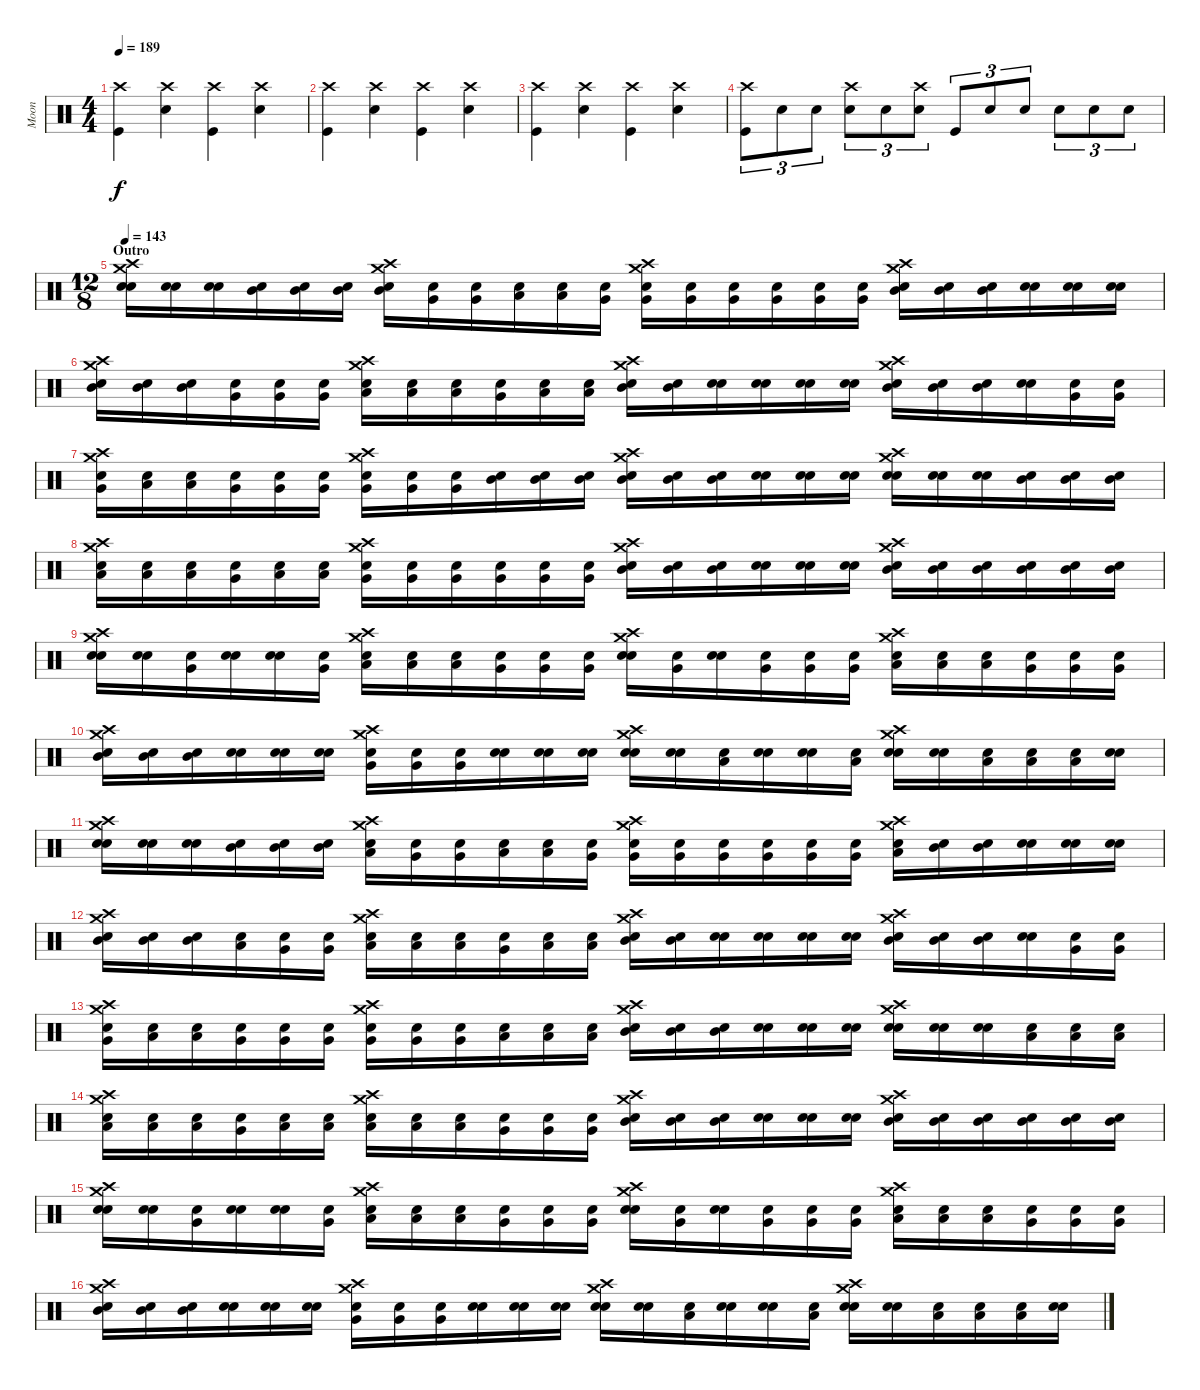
\track ("Moon" "Moon") {instrument percussion}
\staff {score}
\articulation defaults
\ts (4 4)
\tempo 189
\clef neutral
\ks c
("Crash high (hit)" "Kick (hit)").4{dy f} ("Crash high (hit)" "Snare (hit) 2").4 ("Crash high (hit)" "Kick (hit)").4 ("Crash high (hit)" "Snare (hit) 2").4 |
("Crash high (hit)" "Kick (hit)").4 ("Crash high (hit)" "Snare (hit) 2").4 ("Crash high (hit)" "Kick (hit)").4 ("Crash high (hit)" "Snare (hit) 2").4 |
("Crash high (hit)" "Kick (hit)").4 ("Crash high (hit)" "Snare (hit) 2").4 ("Crash high (hit)" "Kick (hit)").4 ("Crash high (hit)" "Snare (hit) 2").4 |
("Crash high (hit)" "Kick (hit)").8{tu (3 2)} "Snare (hit) 2".8{tu (3 2)} "Snare (hit) 2".8{tu (3 2)} ("Crash high (hit)" "Snare (hit) 2").8{tu (3 2)} "Snare (hit) 2".8{tu (3 2)} ("Crash high (hit)" "Snare (hit) 2").8{tu (3 2)} "Kick (hit)".8{tu (3 2)} "Snare (hit) 2".8{tu (3 2)} "Snare (hit) 2".8{tu (3 2)} "Snare (hit) 2".8{tu (3 2)} "Snare (hit) 2".8{tu (3 2)} "Snare (hit) 2".8{tu (3 2)} |
\ts (12 8)
\section ("" "Outro")
\tempo 143
("Snare (hit)" "Snare (hit) 2" "Crash medium (hit)" "Crash high (hit)").16 ("Snare (hit)" "Electric Snare (hit)").16 ("Snare (hit)" "Electric Snare (hit)").16 ("Snare (hit)" "Mid Tom (hit)").16 ("Snare (hit)" "Mid Tom (hit)").16 ("Snare (hit)" "Mid Tom (hit)").16 ("Snare (hit)" "Mid Tom (hit)" "Crash high (hit)" "Crash medium (hit)").16 ("Snare (hit)" "Very Low Tom (hit)").16 ("Snare (hit)" "Very Low Tom (hit)").16 ("Snare (hit)" "Low Floor Tom (hit)").16 ("Snare (hit)" "Low Floor Tom (hit)").16 ("Snare (hit)" "Very Low Tom (hit)").16 ("Snare (hit)" "Very Low Tom (hit)" "Crash medium (hit)" "Crash high (hit)").16 ("Snare (hit)" "Very Low Tom (hit)").16 ("Snare (hit)" "Very Low Tom (hit)").16 ("Snare (hit)" "Very Low Tom (hit)").16 ("Snare (hit)" "Very Low Tom (hit)").16 ("Snare (hit)" "Very Low Tom (hit)").16 ("Snare (hit)" "Mid Tom (hit)" "Crash high (hit)" "Crash medium (hit)").16 ("Snare (hit)" "Mid Tom (hit)").16 ("Snare (hit)" "Mid Tom (hit)").16 ("Snare (hit)" "Electric Snare (hit)").16 ("Snare (hit)" "Electric Snare (hit)").16 ("Snare (hit)" "Electric Snare (hit)").16 |
("Snare (hit)" "Mid Tom (hit)" "Crash medium (hit)" "Crash high (hit)").16 ("Snare (hit)" "Mid Tom (hit)").16 ("Snare (hit)" "Mid Tom (hit)").16 ("Snare (hit)" "Very Low Tom (hit)").16 ("Snare (hit)" "Very Low Tom (hit)").16 ("Snare (hit)" "Very Low Tom (hit)").16 ("Snare (hit)" "Low Floor Tom (hit)" "Crash high (hit)" "Crash medium (hit)").16 ("Snare (hit)" "Low Floor Tom (hit)").16 ("Snare (hit)" "Low Floor Tom (hit)").16 ("Snare (hit)" "Very Low Tom (hit)").16 ("Snare (hit)" "Low Floor Tom (hit)").16 ("Snare (hit)" "Low Floor Tom (hit)").16 ("Snare (hit)" "Mid Tom (hit)" "Crash medium (hit)" "Crash high (hit)").16 ("Snare (hit)" "Mid Tom (hit)").16 ("Snare (hit)" "Electric Snare (hit)").16 ("Snare (hit)" "Electric Snare (hit)").16 ("Snare (hit)" "Electric Snare (hit)").16 ("Snare (hit)" "Electric Snare (hit)").16 ("Snare (hit)" "Mid Tom (hit)" "Crash high (hit)" "Crash medium (hit)").16 ("Snare (hit)" "Mid Tom (hit)").16 ("Snare (hit)" "Mid Tom (hit)").16 ("Snare (hit)" "Electric Snare (hit)").16 ("Snare (hit)" "Very Low Tom (hit)").16 ("Snare (hit)" "Very Low Tom (hit)").16 |
("Snare (hit)" "Very Low Tom (hit)" "Crash medium (hit)" "Crash high (hit)").16 ("Snare (hit)" "Low Floor Tom (hit)").16 ("Snare (hit)" "Low Floor Tom (hit)").16 ("Snare (hit)" "Very Low Tom (hit)").16 ("Snare (hit)" "Very Low Tom (hit)").16 ("Snare (hit)" "Very Low Tom (hit)").16 ("Snare (hit)" "Very Low Tom (hit)" "Crash high (hit)" "Crash medium (hit)").16 ("Snare (hit)" "Very Low Tom (hit)").16 ("Snare (hit)" "Very Low Tom (hit)").16 ("Snare (hit)" "Mid Tom (hit)").16 ("Snare (hit)" "Mid Tom (hit)").16 ("Snare (hit)" "Mid Tom (hit)").16 ("Snare (hit)" "Mid Tom (hit)" "Crash medium (hit)" "Crash high (hit)").16 ("Snare (hit)" "Mid Tom (hit)").16 ("Snare (hit)" "Mid Tom (hit)").16 ("Snare (hit)" "Snare (hit) 2").16 ("Snare (hit)" "Electric Snare (hit)").16 ("Snare (hit)" "Electric Snare (hit)").16 ("Snare (hit)" "Electric Snare (hit)" "Crash high (hit)" "Crash medium (hit)").16 ("Snare (hit)" "Electric Snare (hit)").16 ("Snare (hit)" "Electric Snare (hit)").16 ("Snare (hit)" "Mid Tom (hit)").16 ("Snare (hit)" "Mid Tom (hit)").16 ("Snare (hit)" "Mid Tom (hit)").16 |
("Snare (hit)" "Low Floor Tom (hit)" "Crash medium (hit)" "Crash high (hit)").16 ("Snare (hit)" "Low Floor Tom (hit)").16 ("Snare (hit)" "Low Floor Tom (hit)").16 ("Snare (hit)" "Very Low Tom (hit)").16 ("Snare (hit)" "Low Floor Tom (hit)").16 ("Snare (hit)" "Low Floor Tom (hit)").16 ("Snare (hit)" "Very Low Tom (hit)" "Crash high (hit)" "Crash medium (hit)").16 ("Snare (hit)" "Very Low Tom (hit)").16 ("Snare (hit)" "Very Low Tom (hit)").16 ("Snare (hit)" "Very Low Tom (hit)").16 ("Snare (hit)" "Very Low Tom (hit)").16 ("Snare (hit)" "Very Low Tom (hit)").16 ("Snare (hit)" "Mid Tom (hit)" "Crash medium (hit)" "Crash high (hit)").16 ("Snare (hit)" "Mid Tom (hit)").16 ("Snare (hit)" "Mid Tom (hit)").16 ("Snare (hit)" "Snare (hit) 2").16 ("Snare (hit)" "Snare (hit) 2").16 ("Snare (hit)" "Snare (hit) 2").16 ("Snare (hit)" "Mid Tom (hit)" "Crash high (hit)" "Crash medium (hit)").16 ("Snare (hit)" "Mid Tom (hit)").16 ("Snare (hit)" "Mid Tom (hit)").16 ("Snare (hit)" "Mid Tom (hit)").16 ("Snare (hit)" "Mid Tom (hit)").16 ("Snare (hit)" "Mid Tom (hit)").16 |
("Snare (hit)" "Electric Snare (hit)" "Crash medium (hit)" "Crash high (hit)").16 ("Snare (hit)" "Electric Snare (hit)").16 ("Snare (hit)" "Very Low Tom (hit)").16 ("Snare (hit)" "Snare (hit) 2").16 ("Snare (hit)" "Snare (hit) 2").16 ("Snare (hit)" "Very Low Tom (hit)").16 ("Snare (hit)" "Low Floor Tom (hit)" "Crash high (hit)" "Crash medium (hit)").16 ("Snare (hit)" "Low Floor Tom (hit)").16 ("Snare (hit)" "Low Floor Tom (hit)").16 ("Snare (hit)" "Very Low Tom (hit)").16 ("Snare (hit)" "Very Low Tom (hit)").16 ("Snare (hit)" "Very Low Tom (hit)").16 ("Snare (hit)" "Snare (hit) 2" "Crash medium (hit)" "Crash high (hit)").16 ("Snare (hit)" "Very Low Tom (hit)").16 ("Snare (hit)" "Electric Snare (hit)").16 ("Snare (hit)" "Very Low Tom (hit)").16 ("Snare (hit)" "Very Low Tom (hit)").16 ("Snare (hit)" "Very Low Tom (hit)").16 ("Snare (hit)" "Low Floor Tom (hit)" "Crash high (hit)" "Crash medium (hit)").16 ("Snare (hit)" "Low Floor Tom (hit)").16 ("Snare (hit)" "Low Floor Tom (hit)").16 ("Snare (hit)" "Very Low Tom (hit)").16 ("Snare (hit)" "Very Low Tom (hit)").16 ("Snare (hit)" "Very Low Tom (hit)").16 |
("Snare (hit)" "Mid Tom (hit)" "Crash medium (hit)" "Crash high (hit)").16 ("Snare (hit)" "Mid Tom (hit)").16 ("Snare (hit)" "Mid Tom (hit)").16 ("Snare (hit)" "Snare (hit) 2").16 ("Snare (hit)" "Snare (hit) 2").16 ("Snare (hit)" "Snare (hit) 2").16 ("Snare (hit)" "Very Low Tom (hit)" "Crash high (hit)" "Crash medium (hit)").16 ("Snare (hit)" "Very Low Tom (hit)").16 ("Snare (hit)" "Very Low Tom (hit)").16 ("Snare (hit)" "Snare (hit) 2").16 ("Snare (hit)" "Snare (hit) 2").16 ("Snare (hit)" "Snare (hit) 2").16 ("Snare (hit)" "Electric Snare (hit)" "Crash medium (hit)" "Crash high (hit)").16 ("Snare (hit)" "Snare (hit) 2").16 ("Snare (hit)" "Low Floor Tom (hit)").16 ("Snare (hit)" "Snare (hit) 2").16 ("Snare (hit)" "Snare (hit) 2").16 ("Snare (hit)" "Low Floor Tom (hit)").16 ("Snare (hit)" "Snare (hit) 2" "Crash high (hit)" "Crash medium (hit)").16 ("Snare (hit)" "Snare (hit) 2").16 ("Snare (hit)" "Low Floor Tom (hit)").16 ("Snare (hit)" "Low Floor Tom (hit)").16 ("Snare (hit)" "Low Floor Tom (hit)").16 ("Snare (hit)" "Snare (hit) 2").16 |
("Snare (hit)" "Electric Snare (hit)" "Crash medium (hit)" "Crash high (hit)").16 ("Snare (hit)" "Snare (hit) 2").16 ("Snare (hit)" "Snare (hit) 2").16 ("Snare (hit)" "Mid Tom (hit)").16 ("Snare (hit)" "Mid Tom (hit)").16 ("Snare (hit)" "Mid Tom (hit)").16 ("Snare (hit)" "Low Tom (hit)" "Crash high (hit)" "Crash medium (hit)").16 ("Snare (hit)" "Very Low Tom (hit)").16 ("Snare (hit)" "Very Low Tom (hit)").16 ("Snare (hit)" "Low Floor Tom (hit)").16 ("Snare (hit)" "Low Floor Tom (hit)").16 ("Snare (hit)" "Very Low Tom (hit)").16 ("Snare (hit)" "Very Low Tom (hit)" "Crash medium (hit)" "Crash high (hit)").16 ("Snare (hit)" "Very Low Tom (hit)").16 ("Snare (hit)" "Very Low Tom (hit)").16 ("Snare (hit)" "Very Low Tom (hit)").16 ("Snare (hit)" "Very Low Tom (hit)").16 ("Snare (hit)" "Very Low Tom (hit)").16 ("Snare (hit)" "Low Tom (hit)" "Crash high (hit)" "Crash medium (hit)").16 ("Snare (hit)" "Mid Tom (hit)").16 ("Snare (hit)" "Mid Tom (hit)").16 ("Snare (hit)" "Snare (hit) 2").16 ("Snare (hit)" "Snare (hit) 2").16 ("Snare (hit)" "Snare (hit) 2").16 |
("Snare (hit)" "Mid Tom (hit)" "Crash medium (hit)" "Crash high (hit)").16 ("Snare (hit)" "Mid Tom (hit)").16 ("Snare (hit)" "Mid Tom (hit)").16 ("Snare (hit)" "Low Tom (hit)").16 ("Snare (hit)" "Very Low Tom (hit)").16 ("Snare (hit)" "Very Low Tom (hit)").16 ("Snare (hit)" "Low Floor Tom (hit)" "Crash high (hit)" "Crash medium (hit)").16 ("Snare (hit)" "Low Floor Tom (hit)").16 ("Snare (hit)" "Low Floor Tom (hit)").16 ("Snare (hit)" "Very Low Tom (hit)").16 ("Snare (hit)" "Low Floor Tom (hit)").16 ("Snare (hit)" "Low Floor Tom (hit)").16 ("Snare (hit)" "Mid Tom (hit)" "Crash medium (hit)" "Crash high (hit)").16 ("Snare (hit)" "Mid Tom (hit)").16 ("Snare (hit)" "Snare (hit) 2").16 ("Snare (hit)" "Snare (hit) 2").16 ("Snare (hit)" "Snare (hit) 2").16 ("Snare (hit)" "Snare (hit) 2").16 ("Snare (hit)" "Mid Tom (hit)" "Crash high (hit)" "Crash medium (hit)").16 ("Snare (hit)" "Mid Tom (hit)").16 ("Snare (hit)" "Mid Tom (hit)").16 ("Snare (hit)" "Electric Snare (hit)").16 ("Snare (hit)" "Very Low Tom (hit)").16 ("Snare (hit)" "Very Low Tom (hit)").16 |
("Snare (hit)" "Very Low Tom (hit)" "Crash medium (hit)" "Crash high (hit)").16 ("Snare (hit)" "Low Floor Tom (hit)").16 ("Snare (hit)" "Low Floor Tom (hit)").16 ("Snare (hit)" "Very Low Tom (hit)").16 ("Snare (hit)" "Very Low Tom (hit)").16 ("Snare (hit)" "Very Low Tom (hit)").16 ("Snare (hit)" "Very Low Tom (hit)" "Crash high (hit)" "Crash medium (hit)").16 ("Snare (hit)" "Very Low Tom (hit)").16 ("Snare (hit)" "Very Low Tom (hit)").16 ("Snare (hit)" "Low Tom (hit)").16 ("Snare (hit)" "Low Tom (hit)").16 ("Snare (hit)" "Low Tom (hit)").16 ("Snare (hit)" "Mid Tom (hit)" "Crash medium (hit)" "Crash high (hit)").16 ("Snare (hit)" "Mid Tom (hit)").16 ("Snare (hit)" "Mid Tom (hit)").16 ("Snare (hit)" "Snare (hit) 2").16 ("Snare (hit)" "Snare (hit) 2").16 ("Snare (hit)" "Snare (hit) 2").16 ("Snare (hit)" "Snare (hit) 2" "Crash high (hit)" "Crash medium (hit)").16 ("Snare (hit)" "Snare (hit) 2").16 ("Snare (hit)" "Snare (hit) 2").16 ("Snare (hit)" "Low Tom (hit)").16 ("Snare (hit)" "Low Tom (hit)").16 ("Snare (hit)" "Low Tom (hit)").16 |
("Snare (hit)" "Low Floor Tom (hit)" "Crash medium (hit)" "Crash high (hit)").16 ("Snare (hit)" "Low Floor Tom (hit)").16 ("Snare (hit)" "Low Floor Tom (hit)").16 ("Snare (hit)" "Very Low Tom (hit)").16 ("Snare (hit)" "Low Floor Tom (hit)").16 ("Snare (hit)" "Low Floor Tom (hit)").16 ("Snare (hit)" "Low Tom (hit)" "Crash high (hit)" "Crash medium (hit)").16 ("Snare (hit)" "Low Tom (hit)").16 ("Snare (hit)" "Low Tom (hit)").16 ("Snare (hit)" "Very Low Tom (hit)").16 ("Snare (hit)" "Very Low Tom (hit)").16 ("Snare (hit)" "Very Low Tom (hit)").16 ("Snare (hit)" "Mid Tom (hit)" "Crash medium (hit)" "Crash high (hit)").16 ("Snare (hit)" "Mid Tom (hit)").16 ("Snare (hit)" "Mid Tom (hit)").16 ("Snare (hit)" "Snare (hit) 2").16 ("Snare (hit)" "Snare (hit) 2").16 ("Snare (hit)" "Snare (hit) 2").16 ("Snare (hit)" "Mid Tom (hit)" "Crash high (hit)" "Crash medium (hit)").16 ("Snare (hit)" "Mid Tom (hit)").16 ("Snare (hit)" "Mid Tom (hit)").16 ("Snare (hit)" "Mid Tom (hit)").16 ("Snare (hit)" "Mid Tom (hit)").16 ("Snare (hit)" "Mid Tom (hit)").16 |
("Snare (hit)" "Snare (hit) 2" "Crash medium (hit)" "Crash high (hit)").16 ("Snare (hit)" "Snare (hit) 2").16 ("Snare (hit)" "Very Low Tom (hit)").16 ("Snare (hit)" "Snare (hit) 2").16 ("Snare (hit)" "Snare (hit) 2").16 ("Snare (hit)" "Very Low Tom (hit)").16 ("Snare (hit)" "Low Floor Tom (hit)" "Crash high (hit)" "Crash medium (hit)").16 ("Snare (hit)" "Low Floor Tom (hit)").16 ("Snare (hit)" "Low Floor Tom (hit)").16 ("Snare (hit)" "Very Low Tom (hit)").16 ("Snare (hit)" "Very Low Tom (hit)").16 ("Snare (hit)" "Very Low Tom (hit)").16 ("Snare (hit)" "Snare (hit) 2" "Crash medium (hit)" "Crash high (hit)").16 ("Snare (hit)" "Very Low Tom (hit)").16 ("Snare (hit)" "Snare (hit) 2").16 ("Snare (hit)" "Very Low Tom (hit)").16 ("Snare (hit)" "Very Low Tom (hit)").16 ("Snare (hit)" "Very Low Tom (hit)").16 ("Snare (hit)" "Low Floor Tom (hit)" "Crash high (hit)" "Crash medium (hit)").16 ("Snare (hit)" "Low Floor Tom (hit)").16 ("Snare (hit)" "Low Floor Tom (hit)").16 ("Snare (hit)" "Very Low Tom (hit)").16 ("Snare (hit)" "Very Low Tom (hit)").16 ("Snare (hit)" "Very Low Tom (hit)").16 |
("Snare (hit)" "Mid Tom (hit)" "Crash medium (hit)" "Crash high (hit)").16 ("Snare (hit)" "Mid Tom (hit)").16 ("Snare (hit)" "Mid Tom (hit)").16 ("Snare (hit)" "Electric Snare (hit)").16 ("Snare (hit)" "Snare (hit) 2").16 ("Snare (hit)" "Snare (hit) 2").16 ("Snare (hit)" "Very Low Tom (hit)" "Crash high (hit)" "Crash medium (hit)").16 ("Snare (hit)" "Very Low Tom (hit)").16 ("Snare (hit)" "Very Low Tom (hit)").16 ("Snare (hit)" "Snare (hit) 2").16 ("Snare (hit)" "Snare (hit) 2").16 ("Snare (hit)" "Snare (hit) 2").16 ("Snare (hit)" "Electric Snare (hit)" "Crash medium (hit)" "Crash high (hit)").16 ("Snare (hit)" "Electric Snare (hit)").16 ("Snare (hit)" "Low Floor Tom (hit)").16 ("Snare (hit)" "Electric Snare (hit)").16 ("Snare (hit)" "Electric Snare (hit)").16 ("Snare (hit)" "Low Floor Tom (hit)").16 ("Snare (hit)" "Electric Snare (hit)" "Crash high (hit)" "Crash medium (hit)").16 ("Snare (hit)" "Electric Snare (hit)").16 ("Snare (hit)" "Low Floor Tom (hit)").16 ("Snare (hit)" "Low Floor Tom (hit)").16 ("Snare (hit)" "Low Floor Tom (hit)").16 ("Snare (hit)" "Electric Snare (hit)").16
